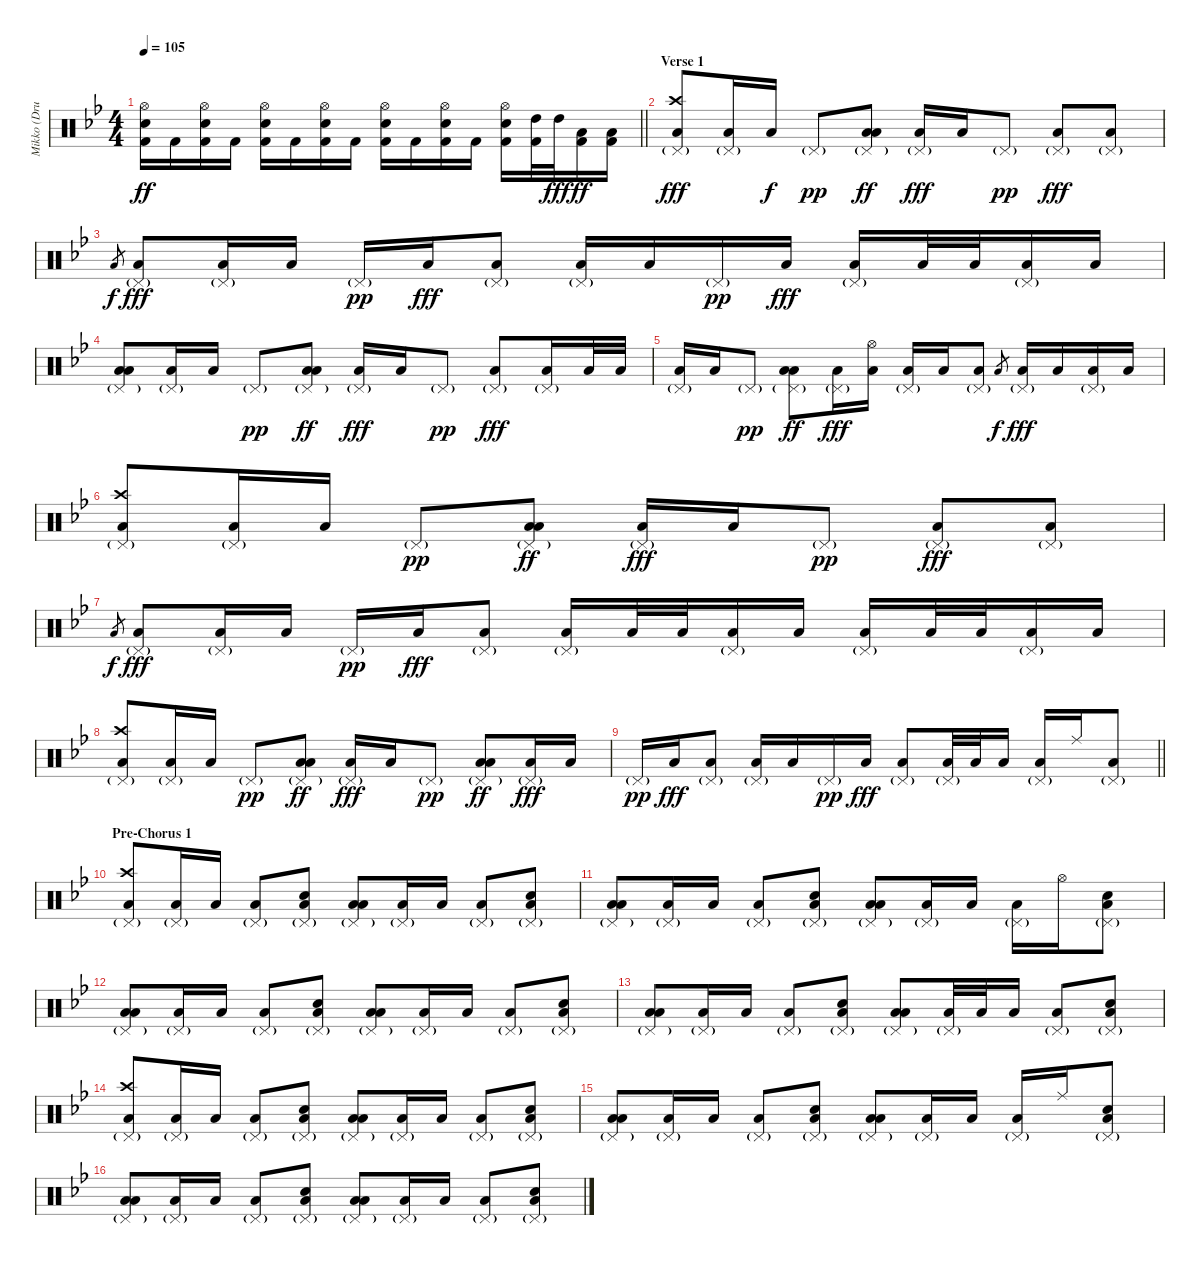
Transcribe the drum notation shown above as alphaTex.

\track ("Mikko (Drums)" "Mikko (Dru") {instrument percussion}
\staff {score}
\articulation defaults
\ts (4 4)
\tempo 105
\clef neutral
\barLineRight lightlight
\ks bb
("Hi-Hat (open)" "Electric Snare (hit)" "Kick (hit) 2").16{dy ff} "Kick (hit) 2".16 ("Hi-Hat (open)" "Electric Snare (hit)" "Kick (hit) 2").16 "Kick (hit) 2".16 ("Hi-Hat (open)" "Electric Snare (hit)" "Kick (hit) 2").16 "Kick (hit) 2".16 ("Hi-Hat (open)" "Electric Snare (hit)" "Kick (hit) 2").16 "Kick (hit) 2".16 ("Hi-Hat (open)" "Electric Snare (hit)" "Kick (hit) 2").16 "Kick (hit) 2".16 ("Hi-Hat (open)" "Electric Snare (hit)" "Kick (hit) 2").16 "Kick (hit) 2".16 ("Hi-Hat (open)" "Electric Snare (hit)" "Kick (hit) 2").16 ("High Tom (hit)" "Kick (hit) 2").32 "High Tom (hit)".32{dy fff} ("Low Tom (hit)" "Kick (hit) 2").16{dy ff} ("Low Floor Tom (hit)" "Kick (hit) 2").16 |
\section ("" "Verse 1")
("Crash high (hit)" "Pedal Hi-Hat (hit)"{g} "Low Tom (hit)").8{dy fff} ("Pedal Hi-Hat (hit)"{g} "Low Floor Tom (hit)").16 "Low Tom (hit)".16{dy f} "Pedal Hi-Hat (hit)"{g}.8{dy pp} ("Pedal Hi-Hat (hit)"{g} "Low Tom (hit)" "Low Floor Tom (hit)").8{dy ff} ("Pedal Hi-Hat (hit)"{g} "Low Floor Tom (hit)").16{dy fff} "Low Tom (hit)".16 "Pedal Hi-Hat (hit)"{g}.8{dy pp} ("Pedal Hi-Hat (hit)"{g} "Low Floor Tom (hit)").8{dy fff} ("Pedal Hi-Hat (hit)"{g} "Low Tom (hit)").8 |
"Low Tom (hit)".8{gr dy f} ("Pedal Hi-Hat (hit)"{g} "Low Floor Tom (hit)").8{dy fff} ("Pedal Hi-Hat (hit)"{g} "Low Floor Tom (hit)").16 "Low Tom (hit)".16 "Pedal Hi-Hat (hit)"{g}.16{dy pp} "Low Floor Tom (hit)".16{dy fff} ("Pedal Hi-Hat (hit)"{g} "Low Tom (hit)").8 ("Pedal Hi-Hat (hit)"{g} "Low Floor Tom (hit)").16 "Low Tom (hit)".16 "Pedal Hi-Hat (hit)"{g}.16{dy pp} "Low Floor Tom (hit)".16{dy fff} ("Pedal Hi-Hat (hit)"{g} "Low Tom (hit)").16 "Low Tom (hit)".32 "Low Tom (hit)".32 ("Pedal Hi-Hat (hit)"{g} "Low Tom (hit)").16 "Low Tom (hit)".16 |
("Pedal Hi-Hat (hit)"{g} "Low Floor Tom (hit)" "Low Tom (hit)").8 ("Pedal Hi-Hat (hit)"{g} "Low Floor Tom (hit)").16 "Low Tom (hit)".16 "Pedal Hi-Hat (hit)"{g}.8{dy pp} ("Pedal Hi-Hat (hit)"{g} "Low Tom (hit)" "Low Floor Tom (hit)").8{dy ff} ("Pedal Hi-Hat (hit)"{g} "Low Floor Tom (hit)").16{dy fff} "Low Tom (hit)".16 "Pedal Hi-Hat (hit)"{g}.8{dy pp} ("Pedal Hi-Hat (hit)"{g} "Low Floor Tom (hit)").8{dy fff} ("Pedal Hi-Hat (hit)"{g} "Low Tom (hit)").16 "Low Floor Tom (hit)".32 "Low Floor Tom (hit)".32 |
("Pedal Hi-Hat (hit)"{g} "Low Floor Tom (hit)").16 "Low Tom (hit)".16 "Pedal Hi-Hat (hit)"{g}.8{dy pp} ("Pedal Hi-Hat (hit)"{g} "Low Floor Tom (hit)" "Low Tom (hit)").8{dy ff} ("Pedal Hi-Hat (hit)"{g} "Low Tom (hit)").16{dy fff} ("Hi-Hat (open)" "Low Floor Tom (hit)").16 ("Pedal Hi-Hat (hit)"{g} "Low Tom (hit)").16 "Low Floor Tom (hit)".16 ("Pedal Hi-Hat (hit)"{g} "Low Tom (hit)").8 "Low Floor Tom (hit)".8{gr dy f} ("Pedal Hi-Hat (hit)"{g} "Low Floor Tom (hit)").16{dy fff} "Low Tom (hit)".16 ("Pedal Hi-Hat (hit)"{g} "Low Floor Tom (hit)").16 "Low Tom (hit)".16 |
("Crash high (hit)" "Pedal Hi-Hat (hit)"{g} "Low Floor Tom (hit)").8 ("Pedal Hi-Hat (hit)"{g} "Low Floor Tom (hit)").16 "Low Tom (hit)".16 "Pedal Hi-Hat (hit)"{g}.8{dy pp} ("Pedal Hi-Hat (hit)"{g} "Low Tom (hit)" "Low Floor Tom (hit)").8{dy ff} ("Pedal Hi-Hat (hit)"{g} "Low Floor Tom (hit)").16{dy fff} "Low Tom (hit)".16 "Pedal Hi-Hat (hit)"{g}.8{dy pp} ("Pedal Hi-Hat (hit)"{g} "Low Floor Tom (hit)").8{dy fff} ("Pedal Hi-Hat (hit)"{g} "Low Tom (hit)").8 |
"Low Tom (hit)".8{gr dy f} ("Pedal Hi-Hat (hit)"{g} "Low Floor Tom (hit)").8{dy fff} ("Pedal Hi-Hat (hit)"{g} "Low Floor Tom (hit)").16 "Low Tom (hit)".16 "Pedal Hi-Hat (hit)"{g}.16{dy pp} "Low Floor Tom (hit)".16{dy fff} ("Pedal Hi-Hat (hit)"{g} "Low Tom (hit)").8 ("Pedal Hi-Hat (hit)"{g} "Low Tom (hit)").16 "Low Tom (hit)".32 "Low Tom (hit)".32 ("Pedal Hi-Hat (hit)"{g} "Low Tom (hit)").16 "Low Tom (hit)".16 ("Pedal Hi-Hat (hit)"{g} "Low Tom (hit)").16 "Low Tom (hit)".32 "Low Tom (hit)".32 ("Pedal Hi-Hat (hit)"{g} "Low Tom (hit)").16 "Low Tom (hit)".16 |
("Crash high (hit)" "Pedal Hi-Hat (hit)"{g} "Low Floor Tom (hit)").8 ("Pedal Hi-Hat (hit)"{g} "Low Floor Tom (hit)").16 "Low Tom (hit)".16 "Pedal Hi-Hat (hit)"{g}.8{dy pp} ("Pedal Hi-Hat (hit)"{g} "Low Tom (hit)" "Low Floor Tom (hit)").8{dy ff} ("Pedal Hi-Hat (hit)"{g} "Low Floor Tom (hit)").16{dy fff} "Low Tom (hit)".16 "Pedal Hi-Hat (hit)"{g}.8{dy pp} ("Pedal Hi-Hat (hit)"{g} "Low Floor Tom (hit)" "Low Tom (hit)").8{dy ff} ("Pedal Hi-Hat (hit)"{g} "Low Floor Tom (hit)").16{dy fff} "Low Tom (hit)".16 |
\barLineRight lightlight "Pedal Hi-Hat (hit)"{g}.16{dy pp} "Low Floor Tom (hit)".16{dy fff}
("Pedal Hi-Hat (hit)"{g} "Low Tom (hit)").8 ("Pedal Hi-Hat (hit)"{g} "Low Floor Tom (hit)").16 "Low Tom (hit)".16 "Pedal Hi-Hat (hit)"{g}.16{dy pp} "Low Floor Tom (hit)".16{dy fff} ("Pedal Hi-Hat (hit)"{g} "Low Tom (hit)").8 ("Pedal Hi-Hat (hit)"{g} "Low Tom (hit)").32 "Low Tom (hit)".32 "Low Tom (hit)".16 ("Pedal Hi-Hat (hit)"{g} "Low Tom (hit)").16 "Ride (middle)".16 ("Pedal Hi-Hat (hit)"{g} "Low Floor Tom (hit)").8 |
\section ("" "Pre-Chorus 1")
("Crash high (hit)" "Pedal Hi-Hat (hit)"{g} "Low Tom (hit)").8 ("Pedal Hi-Hat (hit)"{g} "Low Floor Tom (hit)").16 "Low Floor Tom (hit)".16 ("Pedal Hi-Hat (hit)"{g} "Low Floor Tom (hit)").8 ("Pedal Hi-Hat (hit)"{g} "Low Floor Tom (hit)" "Electric Snare (hit)").8 ("Pedal Hi-Hat (hit)"{g} "Low Floor Tom (hit)" "Low Tom (hit)").8 ("Pedal Hi-Hat (hit)"{g} "Low Floor Tom (hit)").16 "Low Floor Tom (hit)".16 ("Pedal Hi-Hat (hit)"{g} "Low Floor Tom (hit)").8 ("Pedal Hi-Hat (hit)"{g} "Low Floor Tom (hit)" "Electric Snare (hit)").8 |
("Pedal Hi-Hat (hit)"{g} "Low Floor Tom (hit)" "Low Tom (hit)").8 ("Pedal Hi-Hat (hit)"{g} "Low Floor Tom (hit)").16 "Low Floor Tom (hit)".16 ("Pedal Hi-Hat (hit)"{g} "Low Floor Tom (hit)").8 ("Pedal Hi-Hat (hit)"{g} "Low Floor Tom (hit)" "Electric Snare (hit)").8 ("Pedal Hi-Hat (hit)"{g} "Low Floor Tom (hit)" "Low Tom (hit)").8 ("Pedal Hi-Hat (hit)"{g} "Low Floor Tom (hit)").16 "Low Floor Tom (hit)".16 ("Pedal Hi-Hat (hit)"{g} "Low Floor Tom (hit)").16 "Hi-Hat (open)".16 ("Pedal Hi-Hat (hit)"{g} "Low Floor Tom (hit)" "Electric Snare (hit)").8 |
("Pedal Hi-Hat (hit)"{g} "Low Floor Tom (hit)" "Low Tom (hit)").8 ("Pedal Hi-Hat (hit)"{g} "Low Floor Tom (hit)").16 "Low Floor Tom (hit)".16 ("Pedal Hi-Hat (hit)"{g} "Low Floor Tom (hit)").8 ("Pedal Hi-Hat (hit)"{g} "Low Floor Tom (hit)" "Electric Snare (hit)").8 ("Pedal Hi-Hat (hit)"{g} "Low Floor Tom (hit)" "Low Tom (hit)").8 ("Pedal Hi-Hat (hit)"{g} "Low Floor Tom (hit)").16 "Low Floor Tom (hit)".16 ("Pedal Hi-Hat (hit)"{g} "Low Floor Tom (hit)").8 ("Pedal Hi-Hat (hit)"{g} "Low Floor Tom (hit)" "Electric Snare (hit)").8 |
("Pedal Hi-Hat (hit)"{g} "Low Floor Tom (hit)" "Low Tom (hit)").8 ("Pedal Hi-Hat (hit)"{g} "Low Floor Tom (hit)").16 "Low Floor Tom (hit)".16 ("Pedal Hi-Hat (hit)"{g} "Low Floor Tom (hit)").8 ("Pedal Hi-Hat (hit)"{g} "Low Floor Tom (hit)" "Electric Snare (hit)").8 ("Pedal Hi-Hat (hit)"{g} "Low Floor Tom (hit)" "Low Tom (hit)").8 ("Pedal Hi-Hat (hit)"{g} "Low Floor Tom (hit)").32 "Low Tom (hit)".32 "Low Floor Tom (hit)".16 ("Pedal Hi-Hat (hit)"{g} "Low Floor Tom (hit)").8 ("Pedal Hi-Hat (hit)"{g} "Low Floor Tom (hit)" "Electric Snare (hit)").8 |
("Crash high (hit)" "Pedal Hi-Hat (hit)"{g} "Low Floor Tom (hit)").8 ("Pedal Hi-Hat (hit)"{g} "Low Floor Tom (hit)").16 "Low Floor Tom (hit)".16 ("Pedal Hi-Hat (hit)"{g} "Low Floor Tom (hit)").8 ("Pedal Hi-Hat (hit)"{g} "Low Floor Tom (hit)" "Electric Snare (hit)").8 ("Pedal Hi-Hat (hit)"{g} "Low Floor Tom (hit)" "Low Tom (hit)").8 ("Pedal Hi-Hat (hit)"{g} "Low Floor Tom (hit)").16 "Low Floor Tom (hit)".16 ("Pedal Hi-Hat (hit)"{g} "Low Floor Tom (hit)").8 ("Pedal Hi-Hat (hit)"{g} "Low Floor Tom (hit)" "Electric Snare (hit)").8 |
("Pedal Hi-Hat (hit)"{g} "Low Floor Tom (hit)" "Low Tom (hit)").8 ("Pedal Hi-Hat (hit)"{g} "Low Floor Tom (hit)").16 "Low Floor Tom (hit)".16 ("Pedal Hi-Hat (hit)"{g} "Low Floor Tom (hit)").8 ("Pedal Hi-Hat (hit)"{g} "Low Floor Tom (hit)" "Electric Snare (hit)").8 ("Pedal Hi-Hat (hit)"{g} "Low Floor Tom (hit)" "Low Tom (hit)").8 ("Pedal Hi-Hat (hit)"{g} "Low Floor Tom (hit)").16 "Low Floor Tom (hit)".16 ("Pedal Hi-Hat (hit)"{g} "Low Floor Tom (hit)").16 "Ride (middle)".16 ("Pedal Hi-Hat (hit)"{g} "Low Floor Tom (hit)" "Electric Snare (hit)").8 |
("Pedal Hi-Hat (hit)"{g} "Low Floor Tom (hit)" "Low Tom (hit)").8 ("Pedal Hi-Hat (hit)"{g} "Low Floor Tom (hit)").16 "Low Floor Tom (hit)".16 ("Pedal Hi-Hat (hit)"{g} "Low Floor Tom (hit)").8 ("Pedal Hi-Hat (hit)"{g} "Low Floor Tom (hit)" "Electric Snare (hit)").8 ("Pedal Hi-Hat (hit)"{g} "Low Floor Tom (hit)" "Low Tom (hit)").8 ("Pedal Hi-Hat (hit)"{g} "Low Floor Tom (hit)").16 "Low Floor Tom (hit)".16 ("Pedal Hi-Hat (hit)"{g} "Low Floor Tom (hit)").8 ("Pedal Hi-Hat (hit)"{g} "Low Floor Tom (hit)" "Electric Snare (hit)").8
